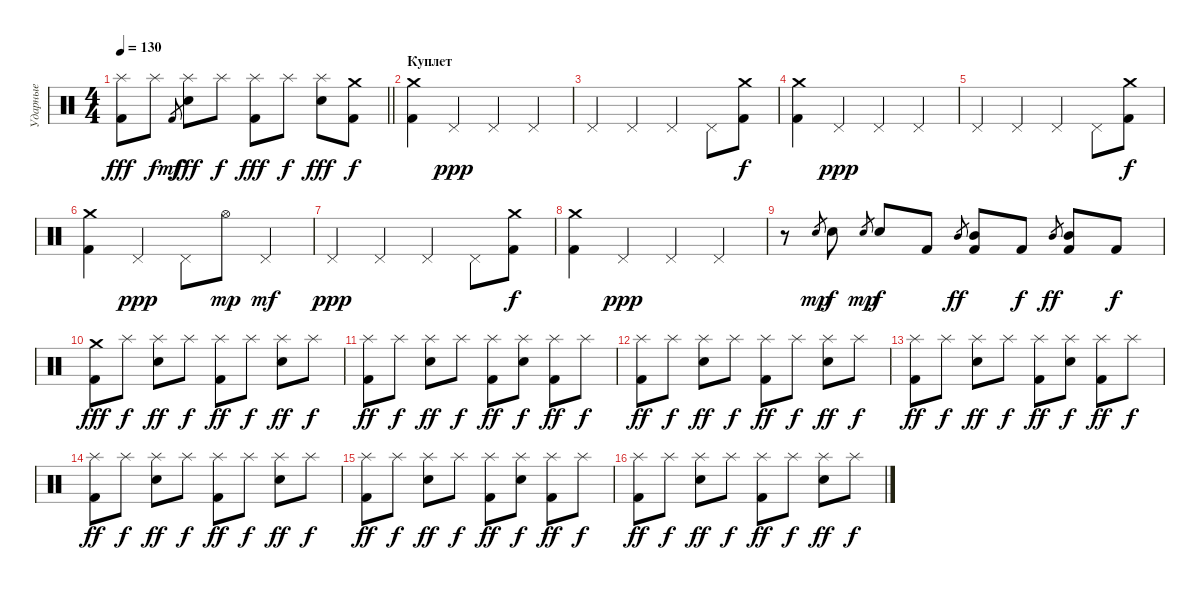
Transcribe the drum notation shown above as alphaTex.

\track ("Ударные" "Ударные") {instrument percussion}
\staff {score}
\articulation defaults
\ts (4 4)
\tempo 130
\clef neutral
\barLineRight lightlight
\ks c
("Kick (hit) 2" "Splash (hit)").8{dy fff} "Splash (hit)".8{dy f} "Kick (hit) 2".8{gr dy mf} ("Electric Snare (hit)" "Splash (hit)").8{dy fff} "Splash (hit)".8{dy f} ("Kick (hit) 2" "Splash (hit)").8{dy fff} "Splash (hit)".8{dy f} ("Electric Snare (hit)" "Splash (hit)").8{dy fff} ("Kick (hit) 2" "Crash medium (hit)").8{dy f} |
\section ("" "Куплет")
("Kick (hit) 2" "Crash medium (hit)").4 "Pedal Hi-Hat (hit)".4{dy ppp} "Pedal Hi-Hat (hit)".4 "Pedal Hi-Hat (hit)".4 |
"Pedal Hi-Hat (hit)".4 "Pedal Hi-Hat (hit)".4 "Pedal Hi-Hat (hit)".4 "Pedal Hi-Hat (hit)".8 ("Kick (hit) 2" "Crash medium (hit)").8{dy f} |
("Kick (hit) 2" "Crash medium (hit)").4 "Pedal Hi-Hat (hit)".4{dy ppp} "Pedal Hi-Hat (hit)".4 "Pedal Hi-Hat (hit)".4 |
"Pedal Hi-Hat (hit)".4 "Pedal Hi-Hat (hit)".4 "Pedal Hi-Hat (hit)".4 "Pedal Hi-Hat (hit)".8 ("Kick (hit) 2" "Crash medium (hit)").8{dy f} |
("Kick (hit) 2" "Crash medium (hit)").4 "Pedal Hi-Hat (hit)".4{dy ppp} "Pedal Hi-Hat (hit)".8 "Hi-Hat (open)".8{dy mp} "Pedal Hi-Hat (hit)".4{dy mf} |
"Pedal Hi-Hat (hit)".4{dy ppp} "Pedal Hi-Hat (hit)".4 "Pedal Hi-Hat (hit)".4 "Pedal Hi-Hat (hit)".8 ("Kick (hit) 2" "Crash medium (hit)").8{dy f} |
("Kick (hit) 2" "Crash medium (hit)").4 "Pedal Hi-Hat (hit)".4{dy ppp} "Pedal Hi-Hat (hit)".4 "Pedal Hi-Hat (hit)".4 |
r.8 "Electric Snare (hit)".8{gr dy mp} "Electric Snare (hit)".8{dy f} "Electric Snare (hit)".8{gr dy mp} "Electric Snare (hit)".8{dy f} "Kick (hit) 2".8 "Mid Tom (hit)".8{gr dy ff} ("Kick (hit) 2" "Mid Tom (hit)").8 "Kick (hit) 2".8{dy f} "Mid Tom (hit)".8{gr dy ff} ("Kick (hit) 2" "Mid Tom (hit)").8 "Kick (hit) 2".8{dy f} |
("Kick (hit) 2" "Crash medium (hit)").8{dy fff} "Splash (hit)".8{dy f} ("Electric Snare (hit)" "Splash (hit)").8{dy ff} "Splash (hit)".8{dy f} ("Kick (hit) 2" "Splash (hit)").8{dy ff} "Splash (hit)".8{dy f} ("Electric Snare (hit)" "Splash (hit)").8{dy ff} "Splash (hit)".8{dy f} |
("Kick (hit) 2" "Splash (hit)").8{dy ff} "Splash (hit)".8{dy f} ("Electric Snare (hit)" "Splash (hit)").8{dy ff} "Splash (hit)".8{dy f} ("Kick (hit) 2" "Splash (hit)").8{dy ff} ("Electric Snare (hit)" "Splash (hit)").8{dy f} ("Kick (hit) 2" "Splash (hit)").8{dy ff} "Splash (hit)".8{dy f} |
("Kick (hit) 2" "Splash (hit)").8{dy ff} "Splash (hit)".8{dy f} ("Electric Snare (hit)" "Splash (hit)").8{dy ff} "Splash (hit)".8{dy f} ("Kick (hit) 2" "Splash (hit)").8{dy ff} "Splash (hit)".8{dy f} ("Electric Snare (hit)" "Splash (hit)").8{dy ff} "Splash (hit)".8{dy f} |
("Kick (hit) 2" "Splash (hit)").8{dy ff} "Splash (hit)".8{dy f} ("Electric Snare (hit)" "Splash (hit)").8{dy ff} "Splash (hit)".8{dy f} ("Kick (hit) 2" "Splash (hit)").8{dy ff} ("Electric Snare (hit)" "Splash (hit)").8{dy f} ("Kick (hit) 2" "Splash (hit)").8{dy ff} "Splash (hit)".8{dy f} |
("Kick (hit) 2" "Splash (hit)").8{dy ff} "Splash (hit)".8{dy f} ("Electric Snare (hit)" "Splash (hit)").8{dy ff} "Splash (hit)".8{dy f} ("Kick (hit) 2" "Splash (hit)").8{dy ff} "Splash (hit)".8{dy f} ("Electric Snare (hit)" "Splash (hit)").8{dy ff} "Splash (hit)".8{dy f} |
("Kick (hit) 2" "Splash (hit)").8{dy ff} "Splash (hit)".8{dy f} ("Electric Snare (hit)" "Splash (hit)").8{dy ff} "Splash (hit)".8{dy f} ("Kick (hit) 2" "Splash (hit)").8{dy ff} ("Electric Snare (hit)" "Splash (hit)").8{dy f} ("Kick (hit) 2" "Splash (hit)").8{dy ff} "Splash (hit)".8{dy f} |
("Kick (hit) 2" "Splash (hit)").8{dy ff} "Splash (hit)".8{dy f} ("Electric Snare (hit)" "Splash (hit)").8{dy ff} "Splash (hit)".8{dy f} ("Kick (hit) 2" "Splash (hit)").8{dy ff} "Splash (hit)".8{dy f} ("Electric Snare (hit)" "Splash (hit)").8{dy ff} "Splash (hit)".8{dy f}
